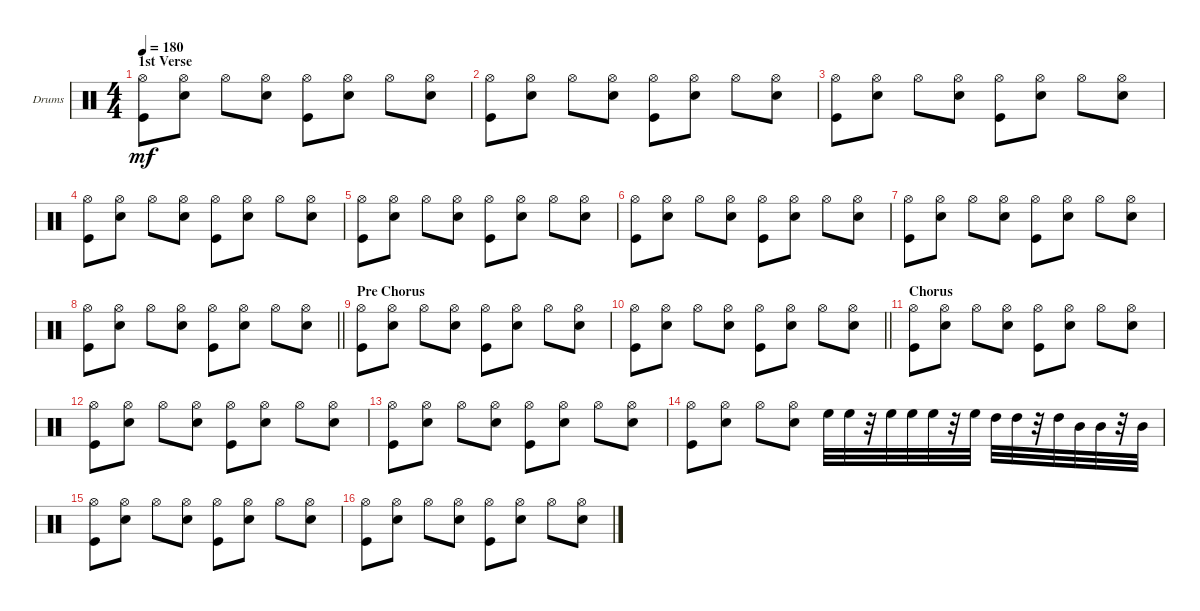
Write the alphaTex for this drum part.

\bracketExtendMode groupsimilarinstruments
\firstSystemTrackNameOrientation horizontal
\otherSystemsTrackNameOrientation horizontal
\track ("Drumkit" "Drums") {instrument percussion}
\staff {score}
\articulation defaults
\ts (4 4)
\section ("" "1st Verse")
\tempo 180
\clef neutral
\ks c
("Kick (hit)" "Hi-Hat (open)").8{dy mf} ("Snare (hit) 2" "Hi-Hat (open)").8 "Hi-Hat (open)".8 ("Snare (hit) 2" "Hi-Hat (open)").8 ("Kick (hit)" "Hi-Hat (open)").8 ("Snare (hit) 2" "Hi-Hat (open)").8 "Hi-Hat (open)".8 ("Snare (hit) 2" "Hi-Hat (open)").8 |
("Kick (hit)" "Hi-Hat (open)").8 ("Snare (hit) 2" "Hi-Hat (open)").8 "Hi-Hat (open)".8 ("Snare (hit) 2" "Hi-Hat (open)").8 ("Kick (hit)" "Hi-Hat (open)").8 ("Snare (hit) 2" "Hi-Hat (open)").8 "Hi-Hat (open)".8 ("Snare (hit) 2" "Hi-Hat (open)").8 |
("Kick (hit)" "Hi-Hat (open)").8 ("Snare (hit) 2" "Hi-Hat (open)").8 "Hi-Hat (open)".8 ("Snare (hit) 2" "Hi-Hat (open)").8 ("Kick (hit)" "Hi-Hat (open)").8 ("Snare (hit) 2" "Hi-Hat (open)").8 "Hi-Hat (open)".8 ("Snare (hit) 2" "Hi-Hat (open)").8 |
("Kick (hit)" "Hi-Hat (open)").8 ("Snare (hit) 2" "Hi-Hat (open)").8 "Hi-Hat (open)".8 ("Snare (hit) 2" "Hi-Hat (open)").8 ("Kick (hit)" "Hi-Hat (open)").8 ("Snare (hit) 2" "Hi-Hat (open)").8 "Hi-Hat (open)".8 ("Snare (hit) 2" "Hi-Hat (open)").8 |
("Kick (hit)" "Hi-Hat (open)").8 ("Snare (hit) 2" "Hi-Hat (open)").8 "Hi-Hat (open)".8 ("Snare (hit) 2" "Hi-Hat (open)").8 ("Kick (hit)" "Hi-Hat (open)").8 ("Snare (hit) 2" "Hi-Hat (open)").8 "Hi-Hat (open)".8 ("Snare (hit) 2" "Hi-Hat (open)").8 |
("Kick (hit)" "Hi-Hat (open)").8 ("Snare (hit) 2" "Hi-Hat (open)").8 "Hi-Hat (open)".8 ("Snare (hit) 2" "Hi-Hat (open)").8 ("Kick (hit)" "Hi-Hat (open)").8 ("Snare (hit) 2" "Hi-Hat (open)").8 "Hi-Hat (open)".8 ("Snare (hit) 2" "Hi-Hat (open)").8 |
("Kick (hit)" "Hi-Hat (open)").8 ("Snare (hit) 2" "Hi-Hat (open)").8 "Hi-Hat (open)".8 ("Snare (hit) 2" "Hi-Hat (open)").8 ("Kick (hit)" "Hi-Hat (open)").8 ("Snare (hit) 2" "Hi-Hat (open)").8 "Hi-Hat (open)".8 ("Snare (hit) 2" "Hi-Hat (open)").8 |
\barLineRight lightlight
("Kick (hit)" "Hi-Hat (open)").8 ("Snare (hit) 2" "Hi-Hat (open)").8 "Hi-Hat (open)".8 ("Snare (hit) 2" "Hi-Hat (open)").8 ("Kick (hit)" "Hi-Hat (open)").8 ("Snare (hit) 2" "Hi-Hat (open)").8 "Hi-Hat (open)".8 ("Snare (hit) 2" "Hi-Hat (open)").8 |
\section ("" "Pre Chorus")
("Kick (hit)" "Hi-Hat (open)").8 ("Snare (hit) 2" "Hi-Hat (open)").8 "Hi-Hat (open)".8 ("Snare (hit) 2" "Hi-Hat (open)").8 ("Kick (hit)" "Hi-Hat (open)").8 ("Snare (hit) 2" "Hi-Hat (open)").8 "Hi-Hat (open)".8 ("Snare (hit) 2" "Hi-Hat (open)").8 |
\barLineRight lightlight
("Kick (hit)" "Hi-Hat (open)").8 ("Snare (hit) 2" "Hi-Hat (open)").8 "Hi-Hat (open)".8 ("Snare (hit) 2" "Hi-Hat (open)").8 ("Kick (hit)" "Hi-Hat (open)").8 ("Snare (hit) 2" "Hi-Hat (open)").8 "Hi-Hat (open)".8 ("Snare (hit) 2" "Hi-Hat (open)").8 |
\section ("" "Chorus")
("Kick (hit)" "Hi-Hat (open)").8 ("Snare (hit) 2" "Hi-Hat (open)").8 "Hi-Hat (open)".8 ("Snare (hit) 2" "Hi-Hat (open)").8 ("Kick (hit)" "Hi-Hat (open)").8 ("Snare (hit) 2" "Hi-Hat (open)").8 "Hi-Hat (open)".8 ("Snare (hit) 2" "Hi-Hat (open)").8 |
("Kick (hit)" "Hi-Hat (open)").8 ("Snare (hit) 2" "Hi-Hat (open)").8 "Hi-Hat (open)".8 ("Snare (hit) 2" "Hi-Hat (open)").8 ("Kick (hit)" "Hi-Hat (open)").8 ("Snare (hit) 2" "Hi-Hat (open)").8 "Hi-Hat (open)".8 ("Snare (hit) 2" "Hi-Hat (open)").8 |
("Kick (hit)" "Hi-Hat (open)").8 ("Snare (hit) 2" "Hi-Hat (open)").8 "Hi-Hat (open)".8 ("Snare (hit) 2" "Hi-Hat (open)").8 ("Kick (hit)" "Hi-Hat (open)").8 ("Snare (hit) 2" "Hi-Hat (open)").8 "Hi-Hat (open)".8 ("Snare (hit) 2" "Hi-Hat (open)").8 |
("Kick (hit)" "Hi-Hat (open)").8 ("Snare (hit) 2" "Hi-Hat (open)").8 "Hi-Hat (open)".8 ("Snare (hit) 2" "Hi-Hat (open)").8 "High Floor Tom (hit)".32 "High Floor Tom (hit)".32 r.32 "High Floor Tom (hit)".32 "High Floor Tom (hit)".32 "High Floor Tom (hit)".32 r.32 "High Floor Tom (hit)".32 "High Tom (hit)".32 "High Tom (hit)".32 r.32 "High Tom (hit)".32 "Mid Tom (hit)".32 "Mid Tom (hit)".32 r.32 "Mid Tom (hit)".32 |
("Kick (hit)" "Hi-Hat (open)").8 ("Snare (hit) 2" "Hi-Hat (open)").8 "Hi-Hat (open)".8 ("Snare (hit) 2" "Hi-Hat (open)").8 ("Kick (hit)" "Hi-Hat (open)").8 ("Snare (hit) 2" "Hi-Hat (open)").8 "Hi-Hat (open)".8 ("Snare (hit) 2" "Hi-Hat (open)").8 |
("Kick (hit)" "Hi-Hat (open)").8 ("Snare (hit) 2" "Hi-Hat (open)").8 "Hi-Hat (open)".8 ("Snare (hit) 2" "Hi-Hat (open)").8 ("Kick (hit)" "Hi-Hat (open)").8 ("Snare (hit) 2" "Hi-Hat (open)").8 "Hi-Hat (open)".8 ("Snare (hit) 2" "Hi-Hat (open)").8
